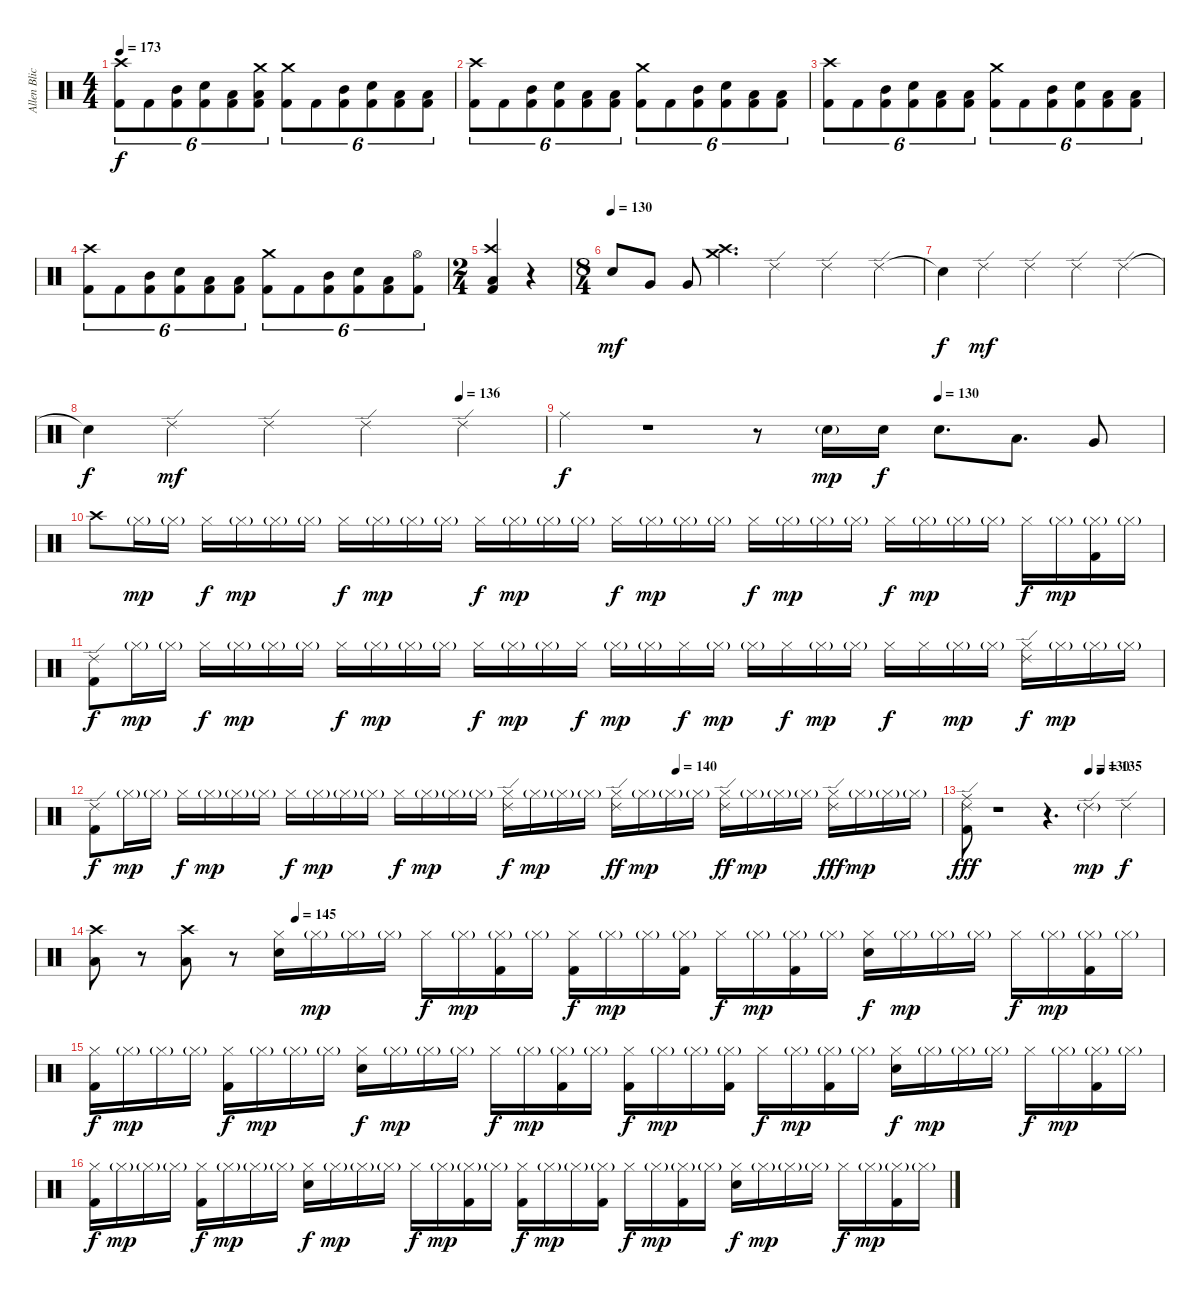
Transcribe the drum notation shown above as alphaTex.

\track ("Allen Blickle" "Allen Blic") {instrument percussion}
\staff {score}
\articulation defaults
\ts (4 4)
\tempo 173
\clef neutral
\ks c
("Kick (hit) 2" "Crash high (hit)").8{tu (6 4) dy f} "Kick (hit) 2".8{tu (6 4)} ("Kick (hit) 2" "Mid Tom (hit)").8{tu (6 4)} ("Kick (hit) 2" "Electric Snare (hit)").8{tu (6 4)} ("Kick (hit) 2" "Low Floor Tom (hit)").8{tu (6 4)} ("Kick (hit) 2" "Crash medium (hit)" "Low Floor Tom (hit)").8{tu (6 4)} ("Kick (hit) 2" "Crash medium (hit)").8{tu (6 4)} "Kick (hit) 2".8{tu (6 4)} ("Kick (hit) 2" "Mid Tom (hit)").8{tu (6 4)} ("Kick (hit) 2" "Electric Snare (hit)").8{tu (6 4)} ("Kick (hit) 2" "Low Floor Tom (hit)").8{tu (6 4)} ("Kick (hit) 2" "Low Floor Tom (hit)").8{tu (6 4)} |
("Kick (hit) 2" "Crash high (hit)").8{tu (6 4)} "Kick (hit) 2".8{tu (6 4)} ("Kick (hit) 2" "Mid Tom (hit)").8{tu (6 4)} ("Kick (hit) 2" "Electric Snare (hit)").8{tu (6 4)} ("Kick (hit) 2" "Low Floor Tom (hit)").8{tu (6 4)} ("Kick (hit) 2" "Low Floor Tom (hit)").8{tu (6 4)} ("Kick (hit) 2" "Crash medium (hit)").8{tu (6 4)} "Kick (hit) 2".8{tu (6 4)} ("Kick (hit) 2" "Mid Tom (hit)").8{tu (6 4)} ("Kick (hit) 2" "Electric Snare (hit)").8{tu (6 4)} ("Kick (hit) 2" "Low Floor Tom (hit)").8{tu (6 4)} ("Kick (hit) 2" "Low Floor Tom (hit)").8{tu (6 4)} |
("Kick (hit) 2" "Crash high (hit)").8{tu (6 4)} "Kick (hit) 2".8{tu (6 4)} ("Kick (hit) 2" "Mid Tom (hit)").8{tu (6 4)} ("Kick (hit) 2" "Electric Snare (hit)").8{tu (6 4)} ("Kick (hit) 2" "Low Floor Tom (hit)").8{tu (6 4)} ("Kick (hit) 2" "Low Floor Tom (hit)").8{tu (6 4)} ("Kick (hit) 2" "Crash medium (hit)").8{tu (6 4)} "Kick (hit) 2".8{tu (6 4)} ("Kick (hit) 2" "Mid Tom (hit)").8{tu (6 4)} ("Kick (hit) 2" "Electric Snare (hit)").8{tu (6 4)} ("Kick (hit) 2" "Low Floor Tom (hit)").8{tu (6 4)} ("Kick (hit) 2" "Low Floor Tom (hit)").8{tu (6 4)} |
("Kick (hit) 2" "Crash high (hit)").8{tu (6 4)} "Kick (hit) 2".8{tu (6 4)} ("Kick (hit) 2" "Mid Tom (hit)").8{tu (6 4)} ("Kick (hit) 2" "Electric Snare (hit)").8{tu (6 4)} ("Kick (hit) 2" "Low Floor Tom (hit)").8{tu (6 4)} ("Kick (hit) 2" "Low Floor Tom (hit)").8{tu (6 4)} ("Kick (hit) 2" "Crash medium (hit)").8{tu (6 4)} "Kick (hit) 2".8{tu (6 4)} ("Kick (hit) 2" "Mid Tom (hit)").8{tu (6 4)} ("Kick (hit) 2" "Electric Snare (hit)").8{tu (6 4)} ("Kick (hit) 2" "Low Floor Tom (hit)").8{tu (6 4)} ("Kick (hit) 2" "Hi-Hat (open)").8{tu (6 4)} |
\ts (2 4)
("Kick (hit) 2" "Low Floor Tom (hit)" "Crash high (hit)").4 r.4 |
\ts (8 4)
\tempo (130)
"Electric Snare (hit)".8{dy mf} "Very Low Tom (hit)".8 "Very Low Tom (hit)".8 ("Crash medium (hit)" "Crash high (hit)").4{d} "Ride (edge) 2".2 "Ride (edge) 2".2 "Ride (edge) 2".4 |
"Snare (hit)"{t}.4{dy f} "Ride (edge) 2".2{dy mf} "Ride (edge) 2".2 "Ride (edge) 2".2 "Ride (edge) 2".4 |
\tempo (136 0.8125)
"Snare (hit)"{t}.4{dy f} "Ride (edge) 2".2{dy mf} "Ride (edge) 2".2 "Ride (edge) 2".2 "Ride (edge) 2".4 |
\tempo (130 0.625)
"Ride (middle)".4{dy f} r.1 r.8 "Electric Snare (hit)"{g}.16{dy mp} "Electric Snare (hit)".16{dy f} "Electric Snare (hit)".8{d} "Low Tom (hit)".8{d} "Very Low Tom (hit)".8 |
"Crash high (hit)".8 "Hi-Hat (closed)"{g}.16{dy mp} "Hi-Hat (closed)"{g}.16 "Hi-Hat (closed)".16{dy f} "Hi-Hat (closed)"{g}.16{dy mp} "Hi-Hat (closed)"{g}.16 "Hi-Hat (closed)"{g}.16 "Hi-Hat (closed)".16{dy f} "Hi-Hat (closed)"{g}.16{dy mp} "Hi-Hat (closed)"{g}.16 "Hi-Hat (closed)"{g}.16 "Hi-Hat (closed)".16{dy f} "Hi-Hat (closed)"{g}.16{dy mp} "Hi-Hat (closed)"{g}.16 "Hi-Hat (closed)"{g}.16 "Hi-Hat (closed)".16{dy f} "Hi-Hat (closed)"{g}.16{dy mp} "Hi-Hat (closed)"{g}.16 "Hi-Hat (closed)"{g}.16 "Hi-Hat (closed)".16{dy f} "Hi-Hat (closed)"{g}.16{dy mp} "Hi-Hat (closed)"{g}.16 "Hi-Hat (closed)"{g}.16 "Hi-Hat (closed)".16{dy f} "Hi-Hat (closed)"{g}.16{dy mp} "Hi-Hat (closed)"{g}.16 "Hi-Hat (closed)"{g}.16 "Hi-Hat (closed)".16{dy f} "Hi-Hat (closed)"{g}.16{dy mp} ("Hi-Hat (closed)"{g} "Kick (hit) 2").16 "Hi-Hat (closed)"{g}.16 |
("Ride (edge) 2" "Kick (hit) 2").8{dy f} "Hi-Hat (closed)"{g}.16{dy mp} "Hi-Hat (closed)"{g}.16 "Hi-Hat (closed)".16{dy f} "Hi-Hat (closed)"{g}.16{dy mp} "Hi-Hat (closed)"{g}.16 "Hi-Hat (closed)"{g}.16 "Hi-Hat (closed)".16{dy f} "Hi-Hat (closed)"{g}.16{dy mp} "Hi-Hat (closed)"{g}.16 "Hi-Hat (closed)"{g}.16 "Hi-Hat (closed)".16{dy f} "Hi-Hat (closed)"{g}.16{dy mp} "Hi-Hat (closed)"{g}.16 "Hi-Hat (closed)".16{dy f} "Hi-Hat (closed)"{g}.16{dy mp} "Hi-Hat (closed)"{g}.16 "Hi-Hat (closed)".16{dy f} "Hi-Hat (closed)"{g}.16{dy mp} "Hi-Hat (closed)"{g}.16 "Hi-Hat (closed)".16{dy f} "Hi-Hat (closed)"{g}.16{dy mp} "Hi-Hat (closed)"{g}.16 "Hi-Hat (closed)".16{dy f} "Hi-Hat (closed)".16 "Hi-Hat (closed)"{g}.16{dy mp} "Hi-Hat (closed)"{g}.16 ("Hi-Hat (closed)" "Ride (edge) 2").16{dy f} "Hi-Hat (closed)"{g}.16{dy mp} "Hi-Hat (closed)"{g}.16 "Hi-Hat (closed)"{g}.16 |
\tempo (140 0.6875)
("Ride (edge) 2" "Kick (hit) 2").8{dy f} "Hi-Hat (closed)"{g}.16{dy mp} "Hi-Hat (closed)"{g}.16 "Hi-Hat (closed)".16{dy f} "Hi-Hat (closed)"{g}.16{dy mp} "Hi-Hat (closed)"{g}.16 "Hi-Hat (closed)"{g}.16 "Hi-Hat (closed)".16{dy f} "Hi-Hat (closed)"{g}.16{dy mp} "Hi-Hat (closed)"{g}.16 "Hi-Hat (closed)"{g}.16 "Hi-Hat (closed)".16{dy f} "Hi-Hat (closed)"{g}.16{dy mp} "Hi-Hat (closed)"{g}.16 "Hi-Hat (closed)"{g}.16 ("Hi-Hat (closed)" "Ride (edge) 2").16{dy f} "Hi-Hat (closed)"{g}.16{dy mp} "Hi-Hat (closed)"{g}.16 "Hi-Hat (closed)"{g}.16 ("Hi-Hat (closed)" "Ride (edge) 2").16{dy ff} "Hi-Hat (closed)"{g}.16{dy mp} "Hi-Hat (closed)"{g}.16 "Hi-Hat (closed)"{g}.16 ("Hi-Hat (closed)" "Ride (edge) 2").16{dy ff} "Hi-Hat (closed)"{g}.16{dy mp} "Hi-Hat (closed)"{g}.16 "Hi-Hat (closed)"{g}.16 ("Hi-Hat (closed)" "Ride (edge) 2").16{dy fff} "Hi-Hat (closed)"{g}.16{dy mp} "Hi-Hat (closed)"{g}.16 "Hi-Hat (closed)"{g}.16 |
\tempo (130 0.625)
\tempo (135 0.6875)
("Kick (hit) 2" "Ride (edge) 2" "Ride (middle)").8{dy fff} r.1 r.4{d} "Ride (edge) 2"{g}.4{dy mp} "Ride (edge) 2".4{dy f} |
\tempo (145 0.1875)
("Crash high (hit)" "Low Floor Tom (hit)").8 r.8 ("Crash high (hit)" "Low Floor Tom (hit)").8 r.8 ("Hi-Hat (closed)" "Electric Snare (hit)").16 "Hi-Hat (closed)"{g}.16{dy mp} "Hi-Hat (closed)"{g}.16 "Hi-Hat (closed)"{g}.16 "Hi-Hat (closed)".16{dy f} "Hi-Hat (closed)"{g}.16{dy mp} ("Hi-Hat (closed)"{g} "Kick (hit) 2").16 "Hi-Hat (closed)"{g}.16 ("Hi-Hat (closed)" "Kick (hit) 2").16{dy f} "Hi-Hat (closed)"{g}.16{dy mp} "Hi-Hat (closed)"{g}.16 ("Hi-Hat (closed)"{g} "Kick (hit) 2").16 "Hi-Hat (closed)".16{dy f} "Hi-Hat (closed)"{g}.16{dy mp} ("Hi-Hat (closed)"{g} "Kick (hit) 2").16 "Hi-Hat (closed)"{g}.16 ("Hi-Hat (closed)" "Electric Snare (hit)").16{dy f} "Hi-Hat (closed)"{g}.16{dy mp} "Hi-Hat (closed)"{g}.16 "Hi-Hat (closed)"{g}.16 "Hi-Hat (closed)".16{dy f} "Hi-Hat (closed)"{g}.16{dy mp} ("Hi-Hat (closed)"{g} "Kick (hit) 2").16 "Hi-Hat (closed)"{g}.16 |
("Hi-Hat (closed)" "Kick (hit) 2").16{dy f} "Hi-Hat (closed)"{g}.16{dy mp} "Hi-Hat (closed)"{g}.16 "Hi-Hat (closed)"{g}.16 ("Hi-Hat (closed)" "Kick (hit) 2").16{dy f} "Hi-Hat (closed)"{g}.16{dy mp} "Hi-Hat (closed)"{g}.16 "Hi-Hat (closed)"{g}.16 ("Hi-Hat (closed)" "Electric Snare (hit)").16{dy f} "Hi-Hat (closed)"{g}.16{dy mp} "Hi-Hat (closed)"{g}.16 "Hi-Hat (closed)"{g}.16 "Hi-Hat (closed)".16{dy f} "Hi-Hat (closed)"{g}.16{dy mp} ("Hi-Hat (closed)"{g} "Kick (hit) 2").16 "Hi-Hat (closed)"{g}.16 ("Hi-Hat (closed)" "Kick (hit) 2").16{dy f} "Hi-Hat (closed)"{g}.16{dy mp} "Hi-Hat (closed)"{g}.16 ("Hi-Hat (closed)"{g} "Kick (hit) 2").16 "Hi-Hat (closed)".16{dy f} "Hi-Hat (closed)"{g}.16{dy mp} ("Hi-Hat (closed)"{g} "Kick (hit) 2").16 "Hi-Hat (closed)"{g}.16 ("Hi-Hat (closed)" "Electric Snare (hit)").16{dy f} "Hi-Hat (closed)"{g}.16{dy mp} "Hi-Hat (closed)"{g}.16 "Hi-Hat (closed)"{g}.16 "Hi-Hat (closed)".16{dy f} "Hi-Hat (closed)"{g}.16{dy mp} ("Hi-Hat (closed)"{g} "Kick (hit) 2").16 "Hi-Hat (closed)"{g}.16 |
("Hi-Hat (closed)" "Kick (hit) 2").16{dy f} "Hi-Hat (closed)"{g}.16{dy mp} "Hi-Hat (closed)"{g}.16 "Hi-Hat (closed)"{g}.16 ("Hi-Hat (closed)" "Kick (hit) 2").16{dy f} "Hi-Hat (closed)"{g}.16{dy mp} "Hi-Hat (closed)"{g}.16 "Hi-Hat (closed)"{g}.16 ("Hi-Hat (closed)" "Electric Snare (hit)").16{dy f} "Hi-Hat (closed)"{g}.16{dy mp} "Hi-Hat (closed)"{g}.16 "Hi-Hat (closed)"{g}.16 "Hi-Hat (closed)".16{dy f} "Hi-Hat (closed)"{g}.16{dy mp} ("Hi-Hat (closed)"{g} "Kick (hit) 2").16 "Hi-Hat (closed)"{g}.16 ("Hi-Hat (closed)" "Kick (hit) 2").16{dy f} "Hi-Hat (closed)"{g}.16{dy mp} "Hi-Hat (closed)"{g}.16 ("Hi-Hat (closed)"{g} "Kick (hit) 2").16 "Hi-Hat (closed)".16{dy f} "Hi-Hat (closed)"{g}.16{dy mp} ("Hi-Hat (closed)"{g} "Kick (hit) 2").16 "Hi-Hat (closed)"{g}.16 ("Hi-Hat (closed)" "Electric Snare (hit)").16{dy f} "Hi-Hat (closed)"{g}.16{dy mp} "Hi-Hat (closed)"{g}.16 "Hi-Hat (closed)"{g}.16 "Hi-Hat (closed)".16{dy f} "Hi-Hat (closed)"{g}.16{dy mp} ("Hi-Hat (closed)"{g} "Kick (hit) 2").16 "Hi-Hat (closed)"{g}.16
